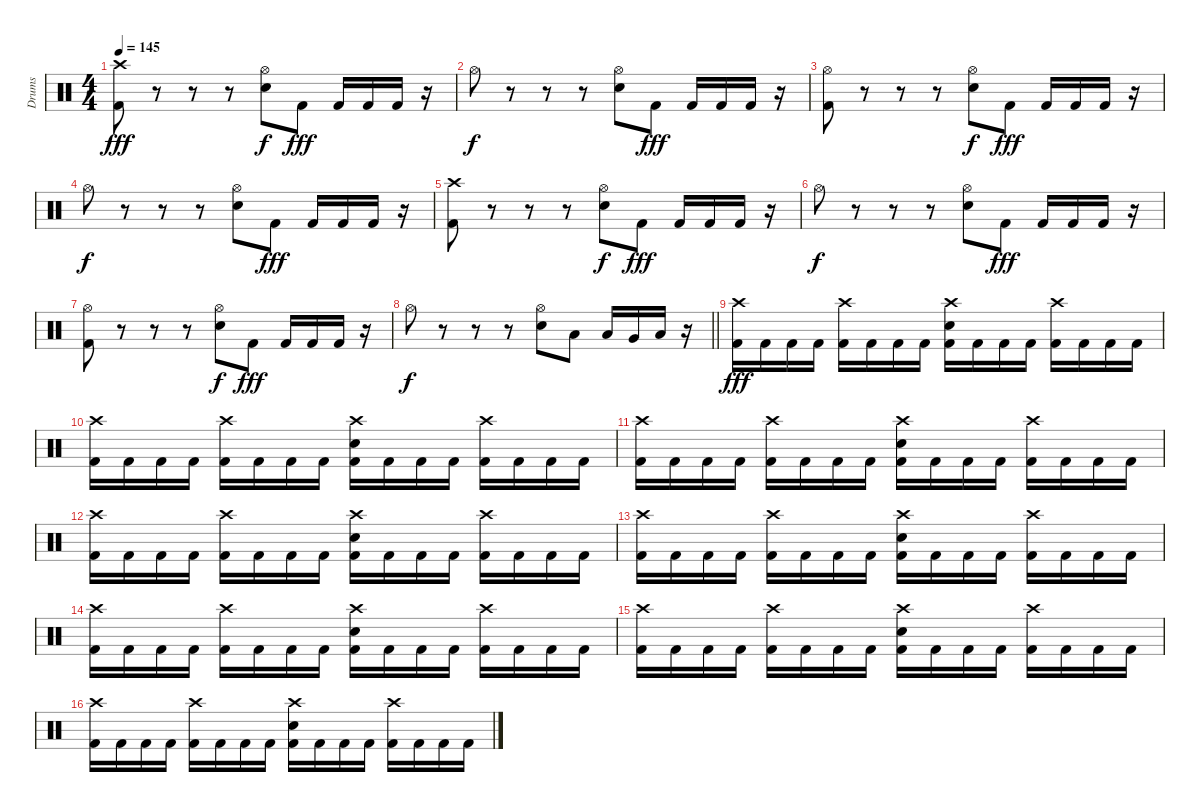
\track ("Drums" "Drums") {instrument percussion}
\staff {score}
\articulation defaults
\ts (4 4)
\section ("" "")
\tempo 145
\clef neutral
\ks c
("Crash high (hit)" "Kick (hit) 2").8{dy fff} r.8 r.8 r.8 ("Hi-Hat (open)" "Electric Snare (hit)").8{dy f} "Kick (hit) 2".8{dy fff} "Kick (hit) 2".16 "Kick (hit) 2".16 "Kick (hit) 2".16 r.16 |
"Hi-Hat (open)".8{dy f} r.8 r.8 r.8 ("Hi-Hat (open)" "Electric Snare (hit)").8 "Kick (hit) 2".8{dy fff} "Kick (hit) 2".16 "Kick (hit) 2".16 "Kick (hit) 2".16 r.16 |
("Hi-Hat (open)" "Kick (hit) 2").8 r.8 r.8 r.8 ("Hi-Hat (open)" "Electric Snare (hit)").8{dy f} "Kick (hit) 2".8{dy fff} "Kick (hit) 2".16 "Kick (hit) 2".16 "Kick (hit) 2".16 r.16 |
"Hi-Hat (open)".8{dy f} r.8 r.8 r.8 ("Hi-Hat (open)" "Electric Snare (hit)").8 "Kick (hit) 2".8{dy fff} "Kick (hit) 2".16 "Kick (hit) 2".16 "Kick (hit) 2".16 r.16 |
("Crash high (hit)" "Kick (hit) 2").8 r.8 r.8 r.8 ("Hi-Hat (open)" "Electric Snare (hit)").8{dy f} "Kick (hit) 2".8{dy fff} "Kick (hit) 2".16 "Kick (hit) 2".16 "Kick (hit) 2".16 r.16 |
"Hi-Hat (open)".8{dy f} r.8 r.8 r.8 ("Hi-Hat (open)" "Electric Snare (hit)").8 "Kick (hit) 2".8{dy fff} "Kick (hit) 2".16 "Kick (hit) 2".16 "Kick (hit) 2".16 r.16 |
("Hi-Hat (open)" "Kick (hit) 2").8 r.8 r.8 r.8 ("Hi-Hat (open)" "Electric Snare (hit)").8{dy f} "Kick (hit) 2".8{dy fff} "Kick (hit) 2".16 "Kick (hit) 2".16 "Kick (hit) 2".16 r.16 |
\barLineRight lightlight "Hi-Hat (open)".8{dy f}
r.8 r.8 r.8 ("Hi-Hat (open)" "Electric Snare (hit)").8 "Low Tom (hit)".8 "Low Tom (hit)".16 "Very Low Tom (hit)".16 "Low Floor Tom (hit)".16 r.16 |
\section ("" "")
("Crash high (hit)" "Kick (hit) 2").16{dy fff} "Kick (hit) 2".16 "Kick (hit) 2".16 "Kick (hit) 2".16 ("Crash high (hit)" "Kick (hit) 2").16 "Kick (hit) 2".16 "Kick (hit) 2".16 "Kick (hit) 2".16 ("Crash high (hit)" "Electric Snare (hit)" "Kick (hit) 2").16 "Kick (hit) 2".16 "Kick (hit) 2".16 "Kick (hit) 2".16 ("Crash high (hit)" "Kick (hit) 2").16 "Kick (hit) 2".16 "Kick (hit) 2".16 "Kick (hit) 2".16 |
("Crash high (hit)" "Kick (hit) 2").16 "Kick (hit) 2".16 "Kick (hit) 2".16 "Kick (hit) 2".16 ("Crash high (hit)" "Kick (hit) 2").16 "Kick (hit) 2".16 "Kick (hit) 2".16 "Kick (hit) 2".16 ("Crash high (hit)" "Electric Snare (hit)" "Kick (hit) 2").16 "Kick (hit) 2".16 "Kick (hit) 2".16 "Kick (hit) 2".16 ("Crash high (hit)" "Kick (hit) 2").16 "Kick (hit) 2".16 "Kick (hit) 2".16 "Kick (hit) 2".16 |
("Crash high (hit)" "Kick (hit) 2").16 "Kick (hit) 2".16 "Kick (hit) 2".16 "Kick (hit) 2".16 ("Crash high (hit)" "Kick (hit) 2").16 "Kick (hit) 2".16 "Kick (hit) 2".16 "Kick (hit) 2".16 ("Crash high (hit)" "Electric Snare (hit)" "Kick (hit) 2").16 "Kick (hit) 2".16 "Kick (hit) 2".16 "Kick (hit) 2".16 ("Crash high (hit)" "Kick (hit) 2").16 "Kick (hit) 2".16 "Kick (hit) 2".16 "Kick (hit) 2".16 |
("Crash high (hit)" "Kick (hit) 2").16 "Kick (hit) 2".16 "Kick (hit) 2".16 "Kick (hit) 2".16 ("Crash high (hit)" "Kick (hit) 2").16 "Kick (hit) 2".16 "Kick (hit) 2".16 "Kick (hit) 2".16 ("Crash high (hit)" "Electric Snare (hit)" "Kick (hit) 2").16 "Kick (hit) 2".16 "Kick (hit) 2".16 "Kick (hit) 2".16 ("Crash high (hit)" "Kick (hit) 2").16 "Kick (hit) 2".16 "Kick (hit) 2".16 "Kick (hit) 2".16 |
("Crash high (hit)" "Kick (hit) 2").16 "Kick (hit) 2".16 "Kick (hit) 2".16 "Kick (hit) 2".16 ("Crash high (hit)" "Kick (hit) 2").16 "Kick (hit) 2".16 "Kick (hit) 2".16 "Kick (hit) 2".16 ("Crash high (hit)" "Electric Snare (hit)" "Kick (hit) 2").16 "Kick (hit) 2".16 "Kick (hit) 2".16 "Kick (hit) 2".16 ("Crash high (hit)" "Kick (hit) 2").16 "Kick (hit) 2".16 "Kick (hit) 2".16 "Kick (hit) 2".16 |
("Crash high (hit)" "Kick (hit) 2").16 "Kick (hit) 2".16 "Kick (hit) 2".16 "Kick (hit) 2".16 ("Crash high (hit)" "Kick (hit) 2").16 "Kick (hit) 2".16 "Kick (hit) 2".16 "Kick (hit) 2".16 ("Crash high (hit)" "Electric Snare (hit)" "Kick (hit) 2").16 "Kick (hit) 2".16 "Kick (hit) 2".16 "Kick (hit) 2".16 ("Crash high (hit)" "Kick (hit) 2").16 "Kick (hit) 2".16 "Kick (hit) 2".16 "Kick (hit) 2".16 |
("Crash high (hit)" "Kick (hit) 2").16 "Kick (hit) 2".16 "Kick (hit) 2".16 "Kick (hit) 2".16 ("Crash high (hit)" "Kick (hit) 2").16 "Kick (hit) 2".16 "Kick (hit) 2".16 "Kick (hit) 2".16 ("Crash high (hit)" "Electric Snare (hit)" "Kick (hit) 2").16 "Kick (hit) 2".16 "Kick (hit) 2".16 "Kick (hit) 2".16 ("Crash high (hit)" "Kick (hit) 2").16 "Kick (hit) 2".16 "Kick (hit) 2".16 "Kick (hit) 2".16 |
("Crash high (hit)" "Kick (hit) 2").16 "Kick (hit) 2".16 "Kick (hit) 2".16 "Kick (hit) 2".16 ("Crash high (hit)" "Kick (hit) 2").16 "Kick (hit) 2".16 "Kick (hit) 2".16 "Kick (hit) 2".16 ("Crash high (hit)" "Electric Snare (hit)" "Kick (hit) 2").16 "Kick (hit) 2".16 "Kick (hit) 2".16 "Kick (hit) 2".16 ("Crash high (hit)" "Kick (hit) 2").16 "Kick (hit) 2".16 "Kick (hit) 2".16 "Kick (hit) 2".16
